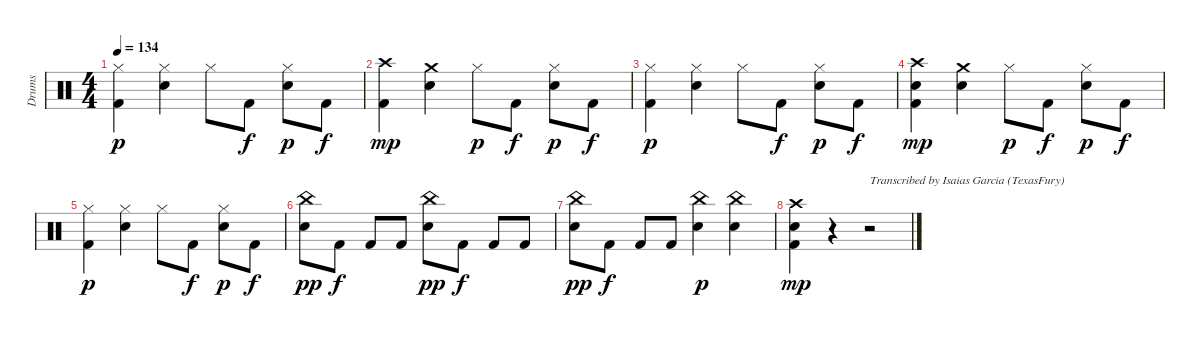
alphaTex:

\track ("Drums" "Drums") {instrument percussion}
\staff {score}
\articulation defaults
\ts (4 4)
\tempo 134
\clef neutral
\ks aminor
("Kick (hit) 2" "Hi-Hat (closed)").4{dy p} ("Electric Snare (hit)" "Hi-Hat (closed)").4 "Hi-Hat (closed)".8 "Kick (hit) 2".8{dy f} ("Electric Snare (hit)" "Hi-Hat (closed)").8{dy p} "Kick (hit) 2".8{dy f} |
("Kick (hit) 2" "Crash high (hit)").4{dy mp} ("Electric Snare (hit)" "Crash medium (hit)").4 "Hi-Hat (closed)".8{dy p} "Kick (hit) 2".8{dy f} ("Electric Snare (hit)" "Hi-Hat (closed)").8{dy p} "Kick (hit) 2".8{dy f} |
("Kick (hit) 2" "Hi-Hat (closed)").4{dy p} ("Electric Snare (hit)" "Hi-Hat (closed)").4 "Hi-Hat (closed)".8 "Kick (hit) 2".8{dy f} ("Electric Snare (hit)" "Hi-Hat (closed)").8{dy p} "Kick (hit) 2".8{dy f} |
("Kick (hit) 2" "Crash high (hit)" "Electric Snare (hit)").4{dy mp} ("Electric Snare (hit)" "Crash medium (hit)").4 "Hi-Hat (closed)".8{dy p} "Kick (hit) 2".8{dy f} ("Electric Snare (hit)" "Hi-Hat (closed)").8{dy p} "Kick (hit) 2".8{dy f} |
("Kick (hit) 2" "Hi-Hat (closed)").4{dy p} ("Electric Snare (hit)" "Hi-Hat (closed)").4 "Hi-Hat (closed)".8 "Kick (hit) 2".8{dy f} ("Electric Snare (hit)" "Hi-Hat (closed)").8{dy p} "Kick (hit) 2".8{dy f} |
("Electric Snare (hit)" "China (hit)").8{dy pp} "Kick (hit) 2".8{dy f} "Kick (hit) 2".8 "Kick (hit) 2".8 ("Electric Snare (hit)" "China (hit)").8{dy pp} "Kick (hit) 2".8{dy f} "Kick (hit) 2".8 "Kick (hit) 2".8 |
("Electric Snare (hit)" "China (hit)").8{dy pp} "Kick (hit) 2".8{dy f} "Kick (hit) 2".8 "Kick (hit) 2".8 ("Electric Snare (hit)" "China (hit)").4{dy p} ("Electric Snare (hit)" "China (hit)").4 |
("Electric Snare (hit)" "Kick (hit) 2" "Crash high (hit)").4{dy mp} r.4 r.2{txt "Transcribed by Isaias Garcia (TexasFury)"}
